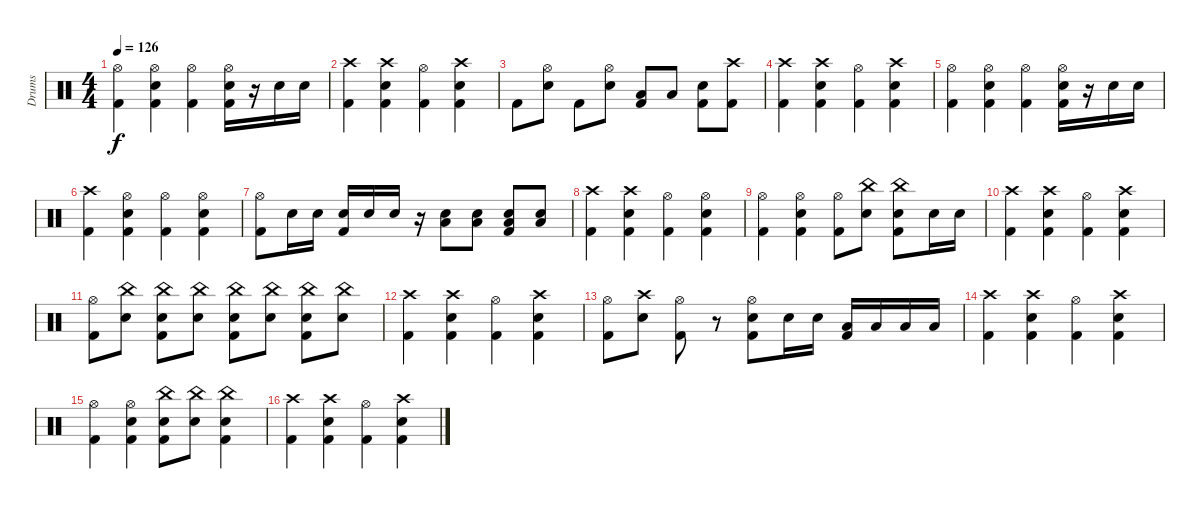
\track ("Drums" "Drums") {instrument percussion}
\staff {score}
\articulation defaults
\ts (4 4)
\tempo 126
\clef neutral
\ks c
("Hi-Hat (open)" "Kick (hit) 2").4{dy f} ("Hi-Hat (open)" "Snare (hit) 2" "Kick (hit) 2").4 ("Hi-Hat (open)" "Kick (hit) 2").4 ("Hi-Hat (open)" "Snare (hit) 2" "Kick (hit) 2").16 r.16 "Snare (hit) 2".16 "Snare (hit) 2".16 |
("Crash high (hit)" "Kick (hit) 2").4 ("Crash high (hit)" "Snare (hit) 2" "Kick (hit) 2").4 ("Hi-Hat (open)" "Kick (hit) 2").4 ("Crash high (hit)" "Snare (hit) 2" "Kick (hit) 2").4 |
"Kick (hit) 2".8 ("Hi-Hat (open)" "Snare (hit) 2").8 "Kick (hit) 2".8 ("Hi-Hat (open)" "Snare (hit) 2").8 ("Low Tom (hit)" "Kick (hit) 2").8 "Low Floor Tom (hit)".8 ("Snare (hit) 2" "Kick (hit) 2").8 ("Crash high (hit)" "Kick (hit) 2").8 |
("Crash high (hit)" "Kick (hit) 2").4 ("Crash high (hit)" "Snare (hit) 2" "Kick (hit) 2").4 ("Hi-Hat (open)" "Kick (hit) 2").4 ("Crash high (hit)" "Snare (hit) 2" "Kick (hit) 2").4 |
("Hi-Hat (open)" "Kick (hit) 2").4 ("Hi-Hat (open)" "Snare (hit) 2" "Kick (hit) 2").4 ("Hi-Hat (open)" "Kick (hit) 2").4 ("Hi-Hat (open)" "Snare (hit) 2" "Kick (hit) 2").16 r.16 "Snare (hit) 2".16 "Snare (hit) 2".16 |
("Crash high (hit)" "Kick (hit) 2").4 ("Hi-Hat (open)" "Snare (hit) 2" "Kick (hit) 2").4 ("Hi-Hat (open)" "Kick (hit) 2").4 ("Hi-Hat (open)" "Snare (hit) 2" "Kick (hit) 2").4 |
("Hi-Hat (open)" "Kick (hit) 2").8 "Snare (hit) 2".16 "Snare (hit) 2".16 ("Snare (hit) 2" "Kick (hit) 2").16 "Snare (hit) 2".16 "Snare (hit) 2".16 r.16 ("Snare (hit) 2" "Low Floor Tom (hit)").8 ("Snare (hit) 2" "Low Floor Tom (hit)").8 ("Snare (hit) 2" "Low Floor Tom (hit)" "Kick (hit) 2").8 ("Snare (hit) 2" "Low Floor Tom (hit)").8 |
("Crash high (hit)" "Kick (hit) 2").4 ("Crash high (hit)" "Snare (hit) 2" "Kick (hit) 2").4 ("Hi-Hat (open)" "Kick (hit) 2").4 ("Hi-Hat (open)" "Snare (hit) 2" "Kick (hit) 2").4 |
("Hi-Hat (open)" "Kick (hit) 2").4 ("Hi-Hat (open)" "Snare (hit) 2" "Kick (hit) 2").4 ("Hi-Hat (open)" "Kick (hit) 2").8 ("China (hit)" "Snare (hit) 2").8 ("China (hit)" "Snare (hit) 2" "Kick (hit) 2").8 "Snare (hit) 2".16 "Snare (hit) 2".16 |
("Crash high (hit)" "Kick (hit) 2").4 ("Crash high (hit)" "Snare (hit) 2" "Kick (hit) 2").4 ("Hi-Hat (open)" "Kick (hit) 2").4 ("Crash high (hit)" "Snare (hit) 2" "Kick (hit) 2").4 |
("Hi-Hat (open)" "Kick (hit) 2").8 ("China (hit)" "Snare (hit) 2").8 ("China (hit)" "Snare (hit) 2" "Kick (hit) 2").8 ("China (hit)" "Snare (hit) 2").8 ("China (hit)" "Snare (hit) 2" "Kick (hit) 2").8 ("China (hit)" "Snare (hit) 2").8 ("China (hit)" "Snare (hit) 2" "Kick (hit) 2").8 ("China (hit)" "Snare (hit) 2").8 |
("Crash high (hit)" "Kick (hit) 2").4 ("Crash high (hit)" "Snare (hit) 2" "Kick (hit) 2").4 ("Hi-Hat (open)" "Kick (hit) 2").4 ("Crash high (hit)" "Snare (hit) 2" "Kick (hit) 2").4 |
("Hi-Hat (open)" "Kick (hit) 2").8 ("Crash high (hit)" "Snare (hit) 2").8 ("Hi-Hat (open)" "Kick (hit) 2").8 r.8 ("Hi-Hat (open)" "Snare (hit) 2" "Kick (hit) 2").8 "Snare (hit) 2".16 "Snare (hit) 2".16 ("Low Tom (hit)" "Kick (hit) 2").16 "Low Tom (hit)".16 "Low Floor Tom (hit)".16 "Low Floor Tom (hit)".16 |
("Crash high (hit)" "Kick (hit) 2").4 ("Crash high (hit)" "Snare (hit) 2" "Kick (hit) 2").4 ("Hi-Hat (open)" "Kick (hit) 2").4 ("Crash high (hit)" "Snare (hit) 2" "Kick (hit) 2").4 |
("Hi-Hat (open)" "Kick (hit) 2").4 ("Hi-Hat (open)" "Snare (hit) 2" "Kick (hit) 2").4 ("China (hit)" "Snare (hit) 2" "Kick (hit) 2").8 ("China (hit)" "Snare (hit) 2").8 ("China (hit)" "Snare (hit) 2" "Kick (hit) 2").4 |
("Crash high (hit)" "Kick (hit) 2").4 ("Crash high (hit)" "Snare (hit) 2" "Kick (hit) 2").4 ("Hi-Hat (open)" "Kick (hit) 2").4 ("Crash high (hit)" "Snare (hit) 2" "Kick (hit) 2").4
